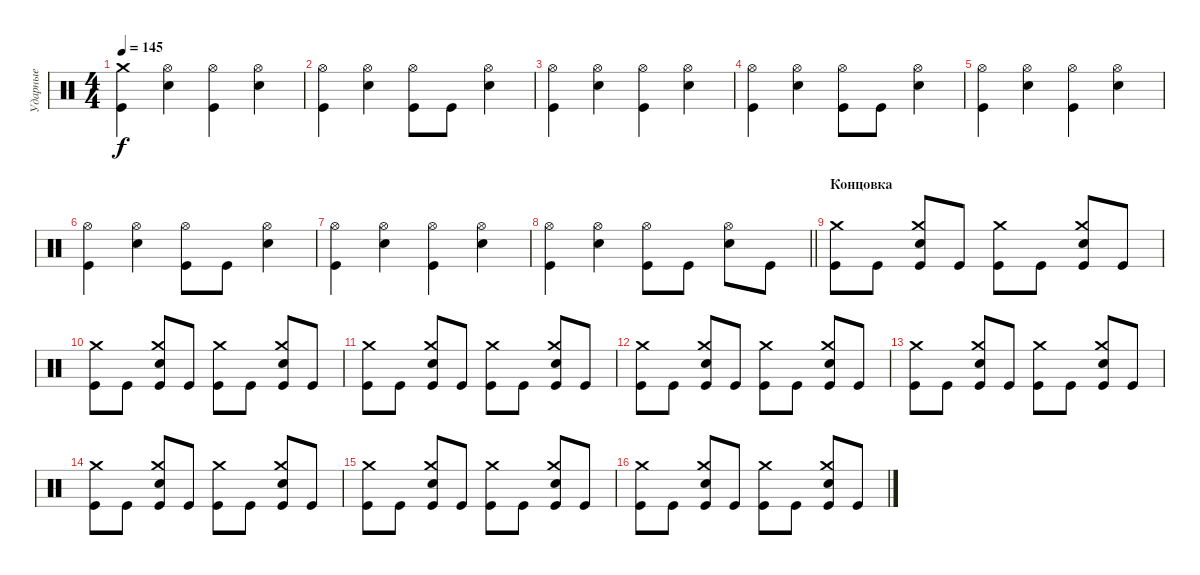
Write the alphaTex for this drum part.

\track ("Ударные" "Ударные") {instrument percussion}
\staff {score}
\articulation defaults
\ts (4 4)
\section ("" "")
\tempo 145
\clef neutral
\ks c
("Kick (hit)" "Crash medium (hit)").4{dy f} ("Snare (hit) 2" "Hi-Hat (open)").4 ("Kick (hit)" "Hi-Hat (open)").4 ("Snare (hit) 2" "Hi-Hat (open)").4 |
("Kick (hit)" "Hi-Hat (open)").4 ("Snare (hit) 2" "Hi-Hat (open)").4 ("Kick (hit)" "Hi-Hat (open)").8 "Kick (hit)".8 ("Snare (hit) 2" "Hi-Hat (open)").4 |
("Kick (hit)" "Hi-Hat (open)").4 ("Snare (hit) 2" "Hi-Hat (open)").4 ("Kick (hit)" "Hi-Hat (open)").4 ("Snare (hit) 2" "Hi-Hat (open)").4 |
("Kick (hit)" "Hi-Hat (open)").4 ("Snare (hit) 2" "Hi-Hat (open)").4 ("Kick (hit)" "Hi-Hat (open)").8 "Kick (hit)".8 ("Snare (hit) 2" "Hi-Hat (open)").4 |
("Kick (hit)" "Hi-Hat (open)").4 ("Snare (hit) 2" "Hi-Hat (open)").4 ("Kick (hit)" "Hi-Hat (open)").4 ("Snare (hit) 2" "Hi-Hat (open)").4 |
("Kick (hit)" "Hi-Hat (open)").4 ("Snare (hit) 2" "Hi-Hat (open)").4 ("Kick (hit)" "Hi-Hat (open)").8 "Kick (hit)".8 ("Snare (hit) 2" "Hi-Hat (open)").4 |
("Kick (hit)" "Hi-Hat (open)").4 ("Snare (hit) 2" "Hi-Hat (open)").4 ("Kick (hit)" "Hi-Hat (open)").4 ("Snare (hit) 2" "Hi-Hat (open)").4 |
\barLineRight lightlight
("Kick (hit)" "Hi-Hat (open)").4 ("Snare (hit) 2" "Hi-Hat (open)").4 ("Kick (hit)" "Hi-Hat (open)").8 "Kick (hit)".8 ("Snare (hit) 2" "Hi-Hat (open)").8 "Kick (hit)".8 |
\section ("" "Концовка")
("Kick (hit)" "Crash medium (hit)").8 "Kick (hit)".8 ("Kick (hit)" "Snare (hit) 2" "Crash medium (hit)").8 "Kick (hit)".8 ("Kick (hit)" "Crash medium (hit)").8 "Kick (hit)".8 ("Kick (hit)" "Snare (hit) 2" "Crash medium (hit)").8 "Kick (hit)".8 |
("Kick (hit)" "Crash medium (hit)").8 "Kick (hit)".8 ("Kick (hit)" "Snare (hit) 2" "Crash medium (hit)").8 "Kick (hit)".8 ("Kick (hit)" "Crash medium (hit)").8 "Kick (hit)".8 ("Kick (hit)" "Snare (hit) 2" "Crash medium (hit)").8 "Kick (hit)".8 |
("Kick (hit)" "Crash medium (hit)").8 "Kick (hit)".8 ("Kick (hit)" "Snare (hit) 2" "Crash medium (hit)").8 "Kick (hit)".8 ("Kick (hit)" "Crash medium (hit)").8 "Kick (hit)".8 ("Kick (hit)" "Snare (hit) 2" "Crash medium (hit)").8 "Kick (hit)".8 |
("Kick (hit)" "Crash medium (hit)").8 "Kick (hit)".8 ("Kick (hit)" "Snare (hit) 2" "Crash medium (hit)").8 "Kick (hit)".8 ("Kick (hit)" "Crash medium (hit)").8 "Kick (hit)".8 ("Kick (hit)" "Snare (hit) 2" "Crash medium (hit)").8 "Kick (hit)".8 |
("Kick (hit)" "Crash medium (hit)").8 "Kick (hit)".8 ("Kick (hit)" "Snare (hit) 2" "Crash medium (hit)").8 "Kick (hit)".8 ("Kick (hit)" "Crash medium (hit)").8 "Kick (hit)".8 ("Kick (hit)" "Snare (hit) 2" "Crash medium (hit)").8 "Kick (hit)".8 |
("Kick (hit)" "Crash medium (hit)").8 "Kick (hit)".8 ("Kick (hit)" "Snare (hit) 2" "Crash medium (hit)").8 "Kick (hit)".8 ("Kick (hit)" "Crash medium (hit)").8 "Kick (hit)".8 ("Kick (hit)" "Snare (hit) 2" "Crash medium (hit)").8 "Kick (hit)".8 |
("Kick (hit)" "Crash medium (hit)").8 "Kick (hit)".8 ("Kick (hit)" "Snare (hit) 2" "Crash medium (hit)").8 "Kick (hit)".8 ("Kick (hit)" "Crash medium (hit)").8 "Kick (hit)".8 ("Kick (hit)" "Snare (hit) 2" "Crash medium (hit)").8 "Kick (hit)".8 |
("Kick (hit)" "Crash medium (hit)").8 "Kick (hit)".8 ("Kick (hit)" "Snare (hit) 2" "Crash medium (hit)").8 "Kick (hit)".8 ("Kick (hit)" "Crash medium (hit)").8 "Kick (hit)".8 ("Kick (hit)" "Snare (hit) 2" "Crash medium (hit)").8 "Kick (hit)".8
